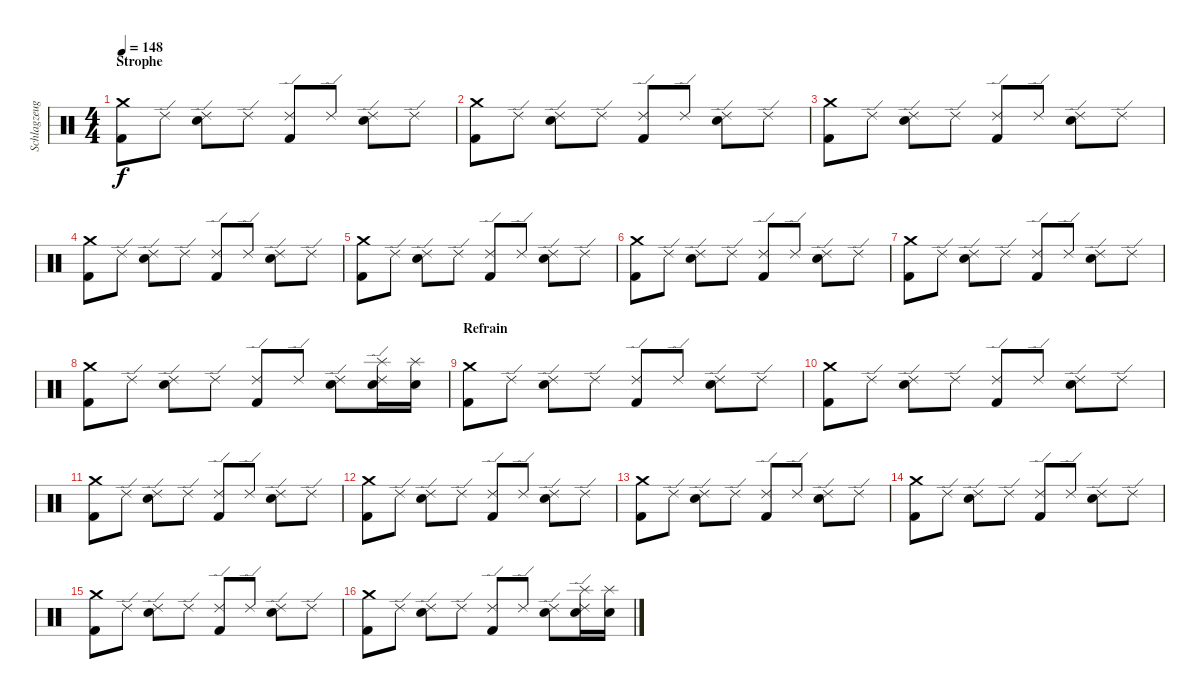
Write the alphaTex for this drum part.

\track ("Schlagzeug" "Schlagzeug") {instrument percussion}
\staff {score}
\articulation defaults
\ts (4 4)
\section ("" "Strophe")
\tempo 148
\clef neutral
\ks c
("Crash medium (hit)" "Kick (hit) 2").8{dy f} "Ride (edge) 2".8 ("Ride (edge) 2" "Snare (hit) 2").8 "Ride (edge) 2".8 ("Ride (edge) 2" "Kick (hit) 2").8 "Ride (edge) 2".8 ("Ride (edge) 2" "Snare (hit) 2").8 "Ride (edge) 2".8 |
("Crash medium (hit)" "Kick (hit) 2").8 "Ride (edge) 2".8 ("Ride (edge) 2" "Snare (hit) 2").8 "Ride (edge) 2".8 ("Ride (edge) 2" "Kick (hit) 2").8 "Ride (edge) 2".8 ("Ride (edge) 2" "Snare (hit) 2").8 "Ride (edge) 2".8 |
("Crash medium (hit)" "Kick (hit) 2").8 "Ride (edge) 2".8 ("Ride (edge) 2" "Snare (hit) 2").8 "Ride (edge) 2".8 ("Ride (edge) 2" "Kick (hit) 2").8 "Ride (edge) 2".8 ("Ride (edge) 2" "Snare (hit) 2").8 "Ride (edge) 2".8 |
("Crash medium (hit)" "Kick (hit) 2").8 "Ride (edge) 2".8 ("Ride (edge) 2" "Snare (hit) 2").8 "Ride (edge) 2".8 ("Ride (edge) 2" "Kick (hit) 2").8 "Ride (edge) 2".8 ("Ride (edge) 2" "Snare (hit) 2").8 "Ride (edge) 2".8 |
("Crash medium (hit)" "Kick (hit) 2").8 "Ride (edge) 2".8 ("Ride (edge) 2" "Snare (hit) 2").8 "Ride (edge) 2".8 ("Ride (edge) 2" "Kick (hit) 2").8 "Ride (edge) 2".8 ("Ride (edge) 2" "Snare (hit) 2").8 "Ride (edge) 2".8 |
("Crash medium (hit)" "Kick (hit) 2").8 "Ride (edge) 2".8 ("Ride (edge) 2" "Snare (hit) 2").8 "Ride (edge) 2".8 ("Ride (edge) 2" "Kick (hit) 2").8 "Ride (edge) 2".8 ("Ride (edge) 2" "Snare (hit) 2").8 "Ride (edge) 2".8 |
("Crash medium (hit)" "Kick (hit) 2").8 "Ride (edge) 2".8 ("Ride (edge) 2" "Snare (hit) 2").8 "Ride (edge) 2".8 ("Ride (edge) 2" "Kick (hit) 2").8 "Ride (edge) 2".8 ("Ride (edge) 2" "Snare (hit) 2").8 "Ride (edge) 2".8 |
("Crash medium (hit)" "Kick (hit) 2").8 "Ride (edge) 2".8 ("Ride (edge) 2" "Snare (hit) 2").8 "Ride (edge) 2".8 ("Ride (edge) 2" "Kick (hit) 2").8 "Ride (edge) 2".8 ("Ride (edge) 2" "Snare (hit) 2").8 ("Splash (hit)" "Snare (hit) 2" "Ride (edge) 2").16 ("Splash (hit)" "Snare (hit) 2").16 |
\section ("" "Refrain")
("Crash medium (hit)" "Kick (hit) 2").8 "Ride (edge) 2".8 ("Ride (edge) 2" "Snare (hit) 2").8 "Ride (edge) 2".8 ("Ride (edge) 2" "Kick (hit) 2").8 "Ride (edge) 2".8 ("Ride (edge) 2" "Snare (hit) 2").8 "Ride (edge) 2".8 |
("Crash medium (hit)" "Kick (hit) 2").8 "Ride (edge) 2".8 ("Ride (edge) 2" "Snare (hit) 2").8 "Ride (edge) 2".8 ("Ride (edge) 2" "Kick (hit) 2").8 "Ride (edge) 2".8 ("Ride (edge) 2" "Snare (hit) 2").8 "Ride (edge) 2".8 |
("Crash medium (hit)" "Kick (hit) 2").8 "Ride (edge) 2".8 ("Ride (edge) 2" "Snare (hit) 2").8 "Ride (edge) 2".8 ("Ride (edge) 2" "Kick (hit) 2").8 "Ride (edge) 2".8 ("Ride (edge) 2" "Snare (hit) 2").8 "Ride (edge) 2".8 |
("Crash medium (hit)" "Kick (hit) 2").8 "Ride (edge) 2".8 ("Ride (edge) 2" "Snare (hit) 2").8 "Ride (edge) 2".8 ("Ride (edge) 2" "Kick (hit) 2").8 "Ride (edge) 2".8 ("Ride (edge) 2" "Snare (hit) 2").8 "Ride (edge) 2".8 |
("Crash medium (hit)" "Kick (hit) 2").8 "Ride (edge) 2".8 ("Ride (edge) 2" "Snare (hit) 2").8 "Ride (edge) 2".8 ("Ride (edge) 2" "Kick (hit) 2").8 "Ride (edge) 2".8 ("Ride (edge) 2" "Snare (hit) 2").8 "Ride (edge) 2".8 |
("Crash medium (hit)" "Kick (hit) 2").8 "Ride (edge) 2".8 ("Ride (edge) 2" "Snare (hit) 2").8 "Ride (edge) 2".8 ("Ride (edge) 2" "Kick (hit) 2").8 "Ride (edge) 2".8 ("Ride (edge) 2" "Snare (hit) 2").8 "Ride (edge) 2".8 |
("Crash medium (hit)" "Kick (hit) 2").8 "Ride (edge) 2".8 ("Ride (edge) 2" "Snare (hit) 2").8 "Ride (edge) 2".8 ("Ride (edge) 2" "Kick (hit) 2").8 "Ride (edge) 2".8 ("Ride (edge) 2" "Snare (hit) 2").8 "Ride (edge) 2".8 |
("Crash medium (hit)" "Kick (hit) 2").8 "Ride (edge) 2".8 ("Ride (edge) 2" "Snare (hit) 2").8 "Ride (edge) 2".8 ("Ride (edge) 2" "Kick (hit) 2").8 "Ride (edge) 2".8 ("Ride (edge) 2" "Snare (hit) 2").8 ("Splash (hit)" "Snare (hit) 2" "Ride (edge) 2").16 ("Splash (hit)" "Snare (hit) 2").16
